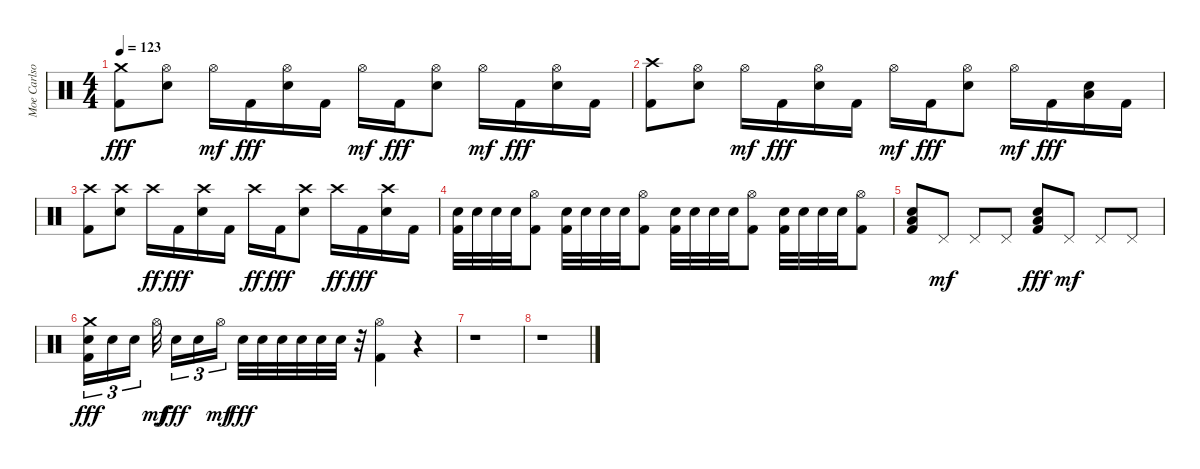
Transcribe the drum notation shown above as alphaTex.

\track ("Moe Carlson" "Moe Carlso") {instrument percussion}
\staff {score}
\articulation defaults
\ts (4 4)
\tempo 123
\clef neutral
\ks c
("Crash medium (hit)" "Kick (hit) 2").8{dy fff} ("Hi-Hat (open)" "Electric Snare (hit)").8 "Hi-Hat (open)".16{dy mf} "Kick (hit) 2".16{dy fff} ("Hi-Hat (open)" "Electric Snare (hit)").16 "Kick (hit) 2".16 "Hi-Hat (open)".16{dy mf} "Kick (hit) 2".16{dy fff} ("Hi-Hat (open)" "Electric Snare (hit)").8 "Hi-Hat (open)".16{dy mf} "Kick (hit) 2".16{dy fff} ("Hi-Hat (open)" "Electric Snare (hit)").16 "Kick (hit) 2".16 |
("Crash high (hit)" "Kick (hit) 2").8 ("Hi-Hat (open)" "Electric Snare (hit)").8 "Hi-Hat (open)".16{dy mf} "Kick (hit) 2".16{dy fff} ("Hi-Hat (open)" "Electric Snare (hit)").16 "Kick (hit) 2".16 "Hi-Hat (open)".16{dy mf} "Kick (hit) 2".16{dy fff} ("Hi-Hat (open)" "Electric Snare (hit)").8 "Hi-Hat (open)".16{dy mf} "Kick (hit) 2".16{dy fff} ("Electric Snare (hit)" "Low Floor Tom (hit)").16 "Kick (hit) 2".16 |
("Crash high (hit)" "Kick (hit) 2").8 ("Crash high (hit)" "Electric Snare (hit)").8 "Crash high (hit)".16{dy ff} "Kick (hit) 2".16{dy fff} ("Crash high (hit)" "Electric Snare (hit)").16 "Kick (hit) 2".16 "Crash high (hit)".16{dy ff} "Kick (hit) 2".16{dy fff} ("Crash high (hit)" "Electric Snare (hit)").8 "Crash high (hit)".16{dy ff} "Kick (hit) 2".16{dy fff} ("Crash high (hit)" "Electric Snare (hit)").16 "Kick (hit) 2".16 |
("Electric Snare (hit)" "Kick (hit) 2").32 "Electric Snare (hit)".32 "Electric Snare (hit)".32 "Electric Snare (hit)".32 ("Hi-Hat (open)" "Kick (hit) 2").8 ("Electric Snare (hit)" "Kick (hit) 2").32 "Electric Snare (hit)".32 "Electric Snare (hit)".32 "Electric Snare (hit)".32 ("Hi-Hat (open)" "Kick (hit) 2").8 ("Electric Snare (hit)" "Kick (hit) 2").32 "Electric Snare (hit)".32 "Electric Snare (hit)".32 "Electric Snare (hit)".32 ("Hi-Hat (open)" "Kick (hit) 2").8 ("Electric Snare (hit)" "Kick (hit) 2").32 "Electric Snare (hit)".32 "Electric Snare (hit)".32 "Electric Snare (hit)".32 ("Hi-Hat (open)" "Kick (hit) 2").8 |
("Electric Snare (hit)" "Low Floor Tom (hit)" "Kick (hit) 2").8 "Pedal Hi-Hat (hit)".8{dy mf} "Pedal Hi-Hat (hit)".8 "Pedal Hi-Hat (hit)".8 ("Electric Snare (hit)" "Low Floor Tom (hit)" "Kick (hit) 2").8{dy fff} "Pedal Hi-Hat (hit)".8{dy mf} "Pedal Hi-Hat (hit)".8 "Pedal Hi-Hat (hit)".8 |
("Crash medium (hit)" "Electric Snare (hit)" "Kick (hit) 2").16{tu (3 2) dy fff} "Electric Snare (hit)".16{tu (3 2)} "Electric Snare (hit)".16{tu (3 2)} "Hi-Hat (open)".32{dy mf} "Electric Snare (hit)".16{tu (3 2) dy fff} "Electric Snare (hit)".16{tu (3 2)} "Hi-Hat (open)".16{tu (3 2) dy mf} "Electric Snare (hit)".32{dy fff} "Electric Snare (hit)".32 "Electric Snare (hit)".32 "Electric Snare (hit)".32 "Electric Snare (hit)".32 "Electric Snare (hit)".32 r.32 ("Hi-Hat (open)" "Kick (hit) 2").4 r.4 |
r.1 |
r.1
